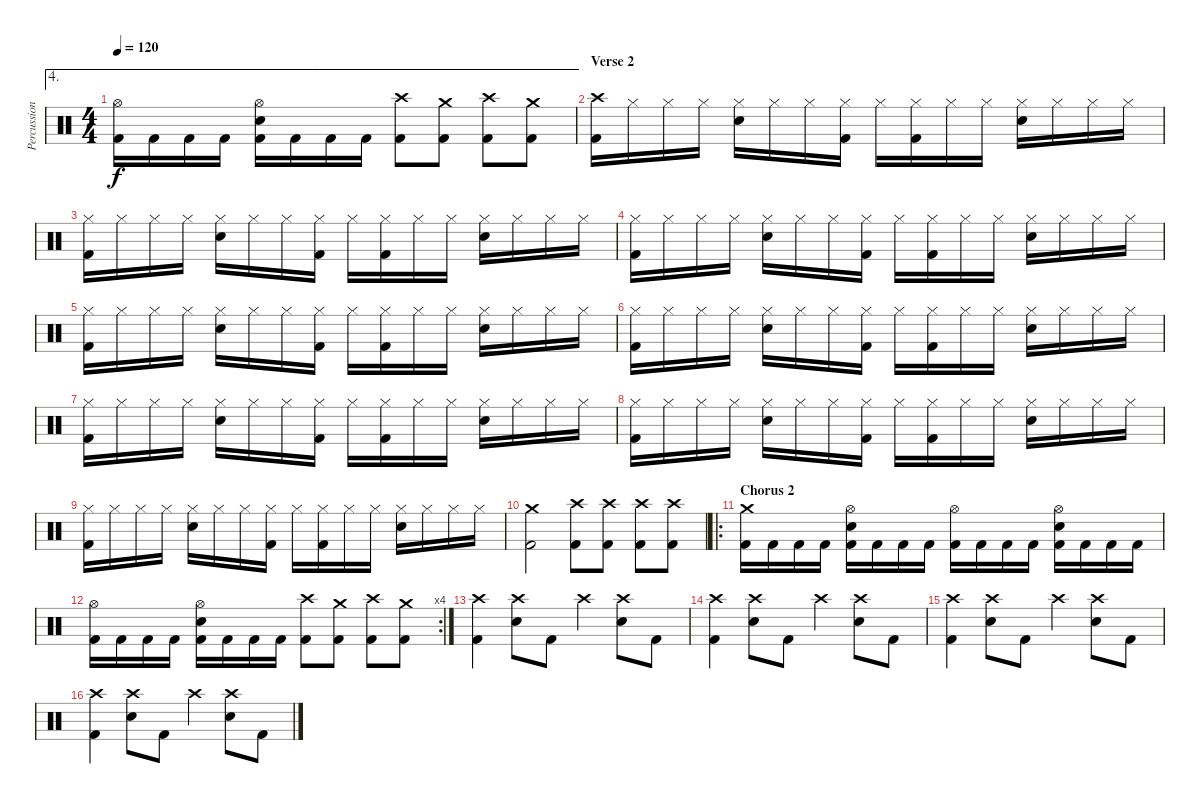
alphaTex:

\track ("Percussion" "Percussion") {instrument percussion}
\staff {score}
\articulation defaults
\ae 4
\ts (4 4)
\tempo 120
\clef neutral
\ks c
("Hi-Hat (open)" "Kick (hit) 2").16{dy f} "Kick (hit) 2".16 "Kick (hit) 2".16 "Kick (hit) 2".16 ("Hi-Hat (open)" "Snare (hit) 2" "Kick (hit) 2").16 "Kick (hit) 2".16 "Kick (hit) 2".16 "Kick (hit) 2".16 ("Crash high (hit)" "Kick (hit) 2").8 ("Crash medium (hit)" "Kick (hit) 2").8 ("Crash high (hit)" "Kick (hit) 2").8 ("Crash medium (hit)" "Kick (hit) 2").8 |
\section ("" "Verse 2")
("Crash high (hit)" "Kick (hit) 2").16 "Hi-Hat (closed)".16 "Hi-Hat (closed)".16 "Hi-Hat (closed)".16 ("Hi-Hat (closed)" "Snare (hit) 2").16 "Hi-Hat (closed)".16 "Hi-Hat (closed)".16 ("Hi-Hat (closed)" "Kick (hit) 2").16 "Hi-Hat (closed)".16 ("Hi-Hat (closed)" "Kick (hit) 2").16 "Hi-Hat (closed)".16 "Hi-Hat (closed)".16 ("Hi-Hat (closed)" "Snare (hit) 2").16 "Hi-Hat (closed)".16 "Hi-Hat (closed)".16 "Hi-Hat (closed)".16 |
("Hi-Hat (closed)" "Kick (hit) 2").16 "Hi-Hat (closed)".16 "Hi-Hat (closed)".16 "Hi-Hat (closed)".16 ("Hi-Hat (closed)" "Snare (hit) 2").16 "Hi-Hat (closed)".16 "Hi-Hat (closed)".16 ("Hi-Hat (closed)" "Kick (hit) 2").16 "Hi-Hat (closed)".16 ("Hi-Hat (closed)" "Kick (hit) 2").16 "Hi-Hat (closed)".16 "Hi-Hat (closed)".16 ("Hi-Hat (closed)" "Snare (hit) 2").16 "Hi-Hat (closed)".16 "Hi-Hat (closed)".16 "Hi-Hat (closed)".16 |
("Hi-Hat (closed)" "Kick (hit) 2").16 "Hi-Hat (closed)".16 "Hi-Hat (closed)".16 "Hi-Hat (closed)".16 ("Hi-Hat (closed)" "Snare (hit) 2").16 "Hi-Hat (closed)".16 "Hi-Hat (closed)".16 ("Hi-Hat (closed)" "Kick (hit) 2").16 "Hi-Hat (closed)".16 ("Hi-Hat (closed)" "Kick (hit) 2").16 "Hi-Hat (closed)".16 "Hi-Hat (closed)".16 ("Hi-Hat (closed)" "Snare (hit) 2").16 "Hi-Hat (closed)".16 "Hi-Hat (closed)".16 "Hi-Hat (closed)".16 |
("Hi-Hat (closed)" "Kick (hit) 2").16 "Hi-Hat (closed)".16 "Hi-Hat (closed)".16 "Hi-Hat (closed)".16 ("Hi-Hat (closed)" "Snare (hit) 2").16 "Hi-Hat (closed)".16 "Hi-Hat (closed)".16 ("Hi-Hat (closed)" "Kick (hit) 2").16 "Hi-Hat (closed)".16 ("Hi-Hat (closed)" "Kick (hit) 2").16 "Hi-Hat (closed)".16 "Hi-Hat (closed)".16 ("Hi-Hat (closed)" "Snare (hit) 2").16 "Hi-Hat (closed)".16 "Hi-Hat (closed)".16 "Hi-Hat (closed)".16 |
("Hi-Hat (closed)" "Kick (hit) 2").16 "Hi-Hat (closed)".16 "Hi-Hat (closed)".16 "Hi-Hat (closed)".16 ("Hi-Hat (closed)" "Snare (hit) 2").16 "Hi-Hat (closed)".16 "Hi-Hat (closed)".16 ("Hi-Hat (closed)" "Kick (hit) 2").16 "Hi-Hat (closed)".16 ("Hi-Hat (closed)" "Kick (hit) 2").16 "Hi-Hat (closed)".16 "Hi-Hat (closed)".16 ("Hi-Hat (closed)" "Snare (hit) 2").16 "Hi-Hat (closed)".16 "Hi-Hat (closed)".16 "Hi-Hat (closed)".16 |
("Hi-Hat (closed)" "Kick (hit) 2").16 "Hi-Hat (closed)".16 "Hi-Hat (closed)".16 "Hi-Hat (closed)".16 ("Hi-Hat (closed)" "Snare (hit) 2").16 "Hi-Hat (closed)".16 "Hi-Hat (closed)".16 ("Hi-Hat (closed)" "Kick (hit) 2").16 "Hi-Hat (closed)".16 ("Hi-Hat (closed)" "Kick (hit) 2").16 "Hi-Hat (closed)".16 "Hi-Hat (closed)".16 ("Hi-Hat (closed)" "Snare (hit) 2").16 "Hi-Hat (closed)".16 "Hi-Hat (closed)".16 "Hi-Hat (closed)".16 |
("Hi-Hat (closed)" "Kick (hit) 2").16 "Hi-Hat (closed)".16 "Hi-Hat (closed)".16 "Hi-Hat (closed)".16 ("Hi-Hat (closed)" "Snare (hit) 2").16 "Hi-Hat (closed)".16 "Hi-Hat (closed)".16 ("Hi-Hat (closed)" "Kick (hit) 2").16 "Hi-Hat (closed)".16 ("Hi-Hat (closed)" "Kick (hit) 2").16 "Hi-Hat (closed)".16 "Hi-Hat (closed)".16 ("Hi-Hat (closed)" "Snare (hit) 2").16 "Hi-Hat (closed)".16 "Hi-Hat (closed)".16 "Hi-Hat (closed)".16 |
("Hi-Hat (closed)" "Kick (hit) 2").16 "Hi-Hat (closed)".16 "Hi-Hat (closed)".16 "Hi-Hat (closed)".16 ("Hi-Hat (closed)" "Snare (hit) 2").16 "Hi-Hat (closed)".16 "Hi-Hat (closed)".16 ("Hi-Hat (closed)" "Kick (hit) 2").16 "Hi-Hat (closed)".16 ("Hi-Hat (closed)" "Kick (hit) 2").16 "Hi-Hat (closed)".16 "Hi-Hat (closed)".16 ("Hi-Hat (closed)" "Snare (hit) 2").16 "Hi-Hat (closed)".16 "Hi-Hat (closed)".16 "Hi-Hat (closed)".16 |
("Crash medium (hit)" "Kick (hit) 2").2 ("Crash high (hit)" "Kick (hit) 2").8 ("Crash high (hit)" "Kick (hit) 2").8 ("Crash high (hit)" "Kick (hit) 2").8 ("Crash high (hit)" "Kick (hit) 2").8 |
\ro
\section ("" "Chorus 2")
("Crash medium (hit)" "Kick (hit) 2").16 "Kick (hit) 2".16 "Kick (hit) 2".16 "Kick (hit) 2".16 ("Hi-Hat (open)" "Snare (hit) 2" "Kick (hit) 2").16 "Kick (hit) 2".16 "Kick (hit) 2".16 "Kick (hit) 2".16 ("Hi-Hat (open)" "Kick (hit) 2").16 "Kick (hit) 2".16 "Kick (hit) 2".16 "Kick (hit) 2".16 ("Hi-Hat (open)" "Snare (hit) 2" "Kick (hit) 2").16 "Kick (hit) 2".16 "Kick (hit) 2".16 "Kick (hit) 2".16 |
\rc 4
("Hi-Hat (open)" "Kick (hit) 2").16 "Kick (hit) 2".16 "Kick (hit) 2".16 "Kick (hit) 2".16 ("Hi-Hat (open)" "Snare (hit) 2" "Kick (hit) 2").16 "Kick (hit) 2".16 "Kick (hit) 2".16 "Kick (hit) 2".16 ("Crash high (hit)" "Kick (hit) 2").8 ("Crash medium (hit)" "Kick (hit) 2").8 ("Crash high (hit)" "Kick (hit) 2").8 ("Crash medium (hit)" "Kick (hit) 2").8 |
("Crash high (hit)" "Kick (hit) 2").4 ("Crash high (hit)" "Snare (hit) 2").8 "Kick (hit) 2".8 "Crash high (hit)".4 ("Crash high (hit)" "Snare (hit) 2").8 "Kick (hit) 2".8 |
("Crash high (hit)" "Kick (hit) 2").4 ("Crash high (hit)" "Snare (hit) 2").8 "Kick (hit) 2".8 "Crash high (hit)".4 ("Crash high (hit)" "Snare (hit) 2").8 "Kick (hit) 2".8 |
("Crash high (hit)" "Kick (hit) 2").4 ("Crash high (hit)" "Snare (hit) 2").8 "Kick (hit) 2".8 "Crash high (hit)".4 ("Crash high (hit)" "Snare (hit) 2").8 "Kick (hit) 2".8 |
("Crash high (hit)" "Kick (hit) 2").4 ("Crash high (hit)" "Snare (hit) 2").8 "Kick (hit) 2".8 "Crash high (hit)".4 ("Crash high (hit)" "Snare (hit) 2").8 "Kick (hit) 2".8
